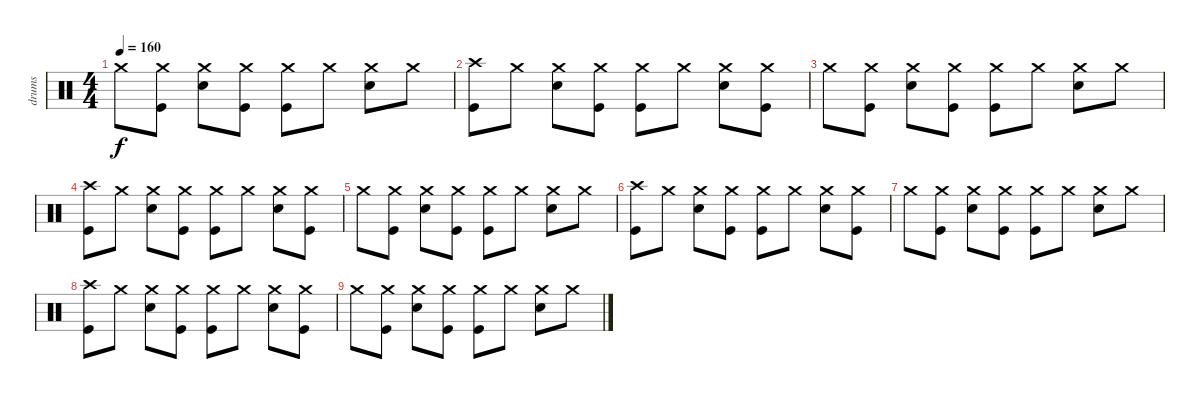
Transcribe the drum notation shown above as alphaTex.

\track ("drums" "drums") {instrument percussion}
\staff {score}
\articulation defaults
\ts (4 4)
\tempo 160
\clef neutral
\ks c "Crash medium (hit)".8{dy f}
("Crash medium (hit)" "Kick (hit)").8 ("Crash medium (hit)" "Snare (hit) 2").8 ("Crash medium (hit)" "Kick (hit)").8 ("Crash medium (hit)" "Kick (hit)").8 "Crash medium (hit)".8 ("Crash medium (hit)" "Snare (hit) 2").8 "Crash medium (hit)".8 |
("Crash high (hit)" "Kick (hit)").8 "Crash medium (hit)".8 ("Crash medium (hit)" "Snare (hit) 2").8 ("Crash medium (hit)" "Kick (hit)").8 ("Crash medium (hit)" "Kick (hit)").8 "Crash medium (hit)".8 ("Crash medium (hit)" "Snare (hit) 2").8 ("Crash medium (hit)" "Kick (hit)").8 |
"Crash medium (hit)".8 ("Crash medium (hit)" "Kick (hit)").8 ("Crash medium (hit)" "Snare (hit) 2").8 ("Crash medium (hit)" "Kick (hit)").8 ("Crash medium (hit)" "Kick (hit)").8 "Crash medium (hit)".8 ("Crash medium (hit)" "Snare (hit) 2").8 "Crash medium (hit)".8 |
("Crash high (hit)" "Kick (hit)").8 "Crash medium (hit)".8 ("Crash medium (hit)" "Snare (hit) 2").8 ("Crash medium (hit)" "Kick (hit)").8 ("Crash medium (hit)" "Kick (hit)").8 "Crash medium (hit)".8 ("Crash medium (hit)" "Snare (hit) 2").8 ("Crash medium (hit)" "Kick (hit)").8 |
"Crash medium (hit)".8 ("Crash medium (hit)" "Kick (hit)").8 ("Crash medium (hit)" "Snare (hit) 2").8 ("Crash medium (hit)" "Kick (hit)").8 ("Crash medium (hit)" "Kick (hit)").8 "Crash medium (hit)".8 ("Crash medium (hit)" "Snare (hit) 2").8 "Crash medium (hit)".8 |
("Crash high (hit)" "Kick (hit)").8 "Crash medium (hit)".8 ("Crash medium (hit)" "Snare (hit) 2").8 ("Crash medium (hit)" "Kick (hit)").8 ("Crash medium (hit)" "Kick (hit)").8 "Crash medium (hit)".8 ("Crash medium (hit)" "Snare (hit) 2").8 ("Crash medium (hit)" "Kick (hit)").8 |
"Crash medium (hit)".8 ("Crash medium (hit)" "Kick (hit)").8 ("Crash medium (hit)" "Snare (hit) 2").8 ("Crash medium (hit)" "Kick (hit)").8 ("Crash medium (hit)" "Kick (hit)").8 "Crash medium (hit)".8 ("Crash medium (hit)" "Snare (hit) 2").8 "Crash medium (hit)".8 |
("Crash high (hit)" "Kick (hit)").8 "Crash medium (hit)".8 ("Crash medium (hit)" "Snare (hit) 2").8 ("Crash medium (hit)" "Kick (hit)").8 ("Crash medium (hit)" "Kick (hit)").8 "Crash medium (hit)".8 ("Crash medium (hit)" "Snare (hit) 2").8 ("Crash medium (hit)" "Kick (hit)").8 |
"Crash medium (hit)".8 ("Crash medium (hit)" "Kick (hit)").8 ("Crash medium (hit)" "Snare (hit) 2").8 ("Crash medium (hit)" "Kick (hit)").8 ("Crash medium (hit)" "Kick (hit)").8 "Crash medium (hit)".8 ("Crash medium (hit)" "Snare (hit) 2").8 "Crash medium (hit)".8
